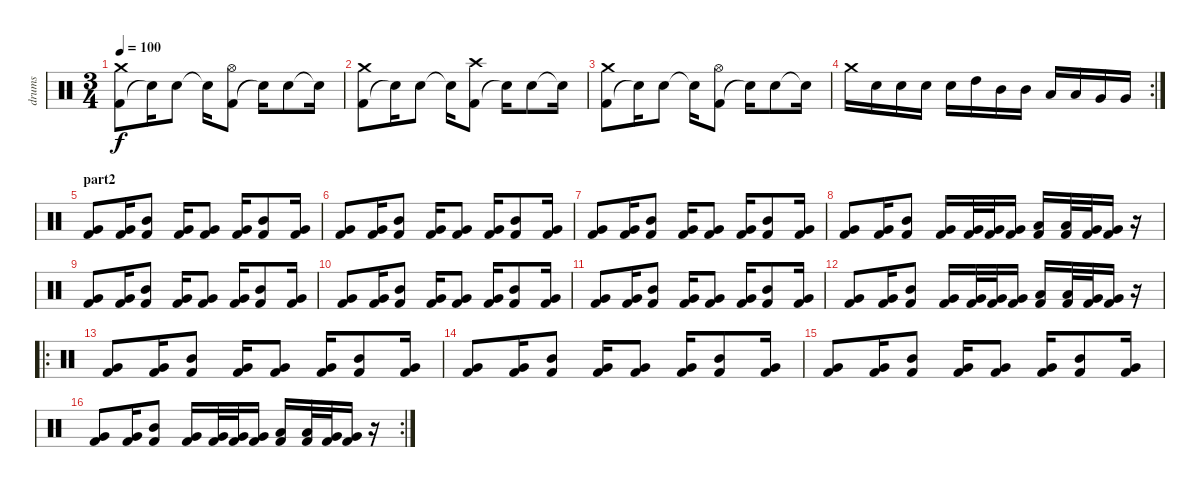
\track ("drums" "drums") {instrument percussion}
\staff {score}
\articulation defaults
\ts (3 4)
\tempo 100
\clef neutral
\ks c
("Kick (hit) 2" "Crash medium (hit)").8{dy f} "Snare (hit)"{t}.16 "Electric Snare (hit)".8 "Snare (hit)"{t}.16 ("Kick (hit) 2" "Hi-Hat (open)").8 "Snare (hit)"{t}.16 "Electric Snare (hit)".8 "Snare (hit)"{t}.16 |
("Kick (hit) 2" "Crash medium (hit)").8 "Snare (hit)"{t}.16 "Electric Snare (hit)".8 "Snare (hit)"{t}.16 ("Kick (hit) 2" "Crash high (hit)").8 "Snare (hit)"{t}.16 "Electric Snare (hit)".8 "Snare (hit)"{t}.16 |
("Kick (hit) 2" "Crash medium (hit)").8 "Snare (hit)"{t}.16 "Electric Snare (hit)".8 "Snare (hit)"{t}.16 ("Kick (hit) 2" "Hi-Hat (open)").8 "Snare (hit)"{t}.16 "Electric Snare (hit)".8 "Snare (hit)"{t}.16 |
\rc 2 "Crash medium (hit)".16 "Electric Snare (hit)".16 "Electric Snare (hit)".16 "Electric Snare (hit)".16 "Electric Snare (hit)".16 "High Tom (hit)".16 "Mid Tom (hit)".16 "Mid Tom (hit)".16 "Low Tom (hit)".16 "Low Tom (hit)".16 "Very Low Tom (hit)".16 "Very Low Tom (hit)".16
|
\section ("" "part2")
("Kick (hit) 2" "Very Low Tom (hit)").8 ("Kick (hit) 2" "Very Low Tom (hit)").16 ("Kick (hit) 2" "Mid Tom (hit)").8 ("Kick (hit) 2" "Very Low Tom (hit)").16 ("Kick (hit) 2" "Very Low Tom (hit)").8 ("Kick (hit) 2" "Very Low Tom (hit)").16 ("Kick (hit) 2" "Mid Tom (hit)").8 ("Kick (hit) 2" "Very Low Tom (hit)").16 |
("Kick (hit) 2" "Very Low Tom (hit)").8 ("Kick (hit) 2" "Very Low Tom (hit)").16 ("Kick (hit) 2" "Mid Tom (hit)").8 ("Kick (hit) 2" "Very Low Tom (hit)").16 ("Kick (hit) 2" "Very Low Tom (hit)").8 ("Kick (hit) 2" "Very Low Tom (hit)").16 ("Kick (hit) 2" "Mid Tom (hit)").8 ("Kick (hit) 2" "Very Low Tom (hit)").16 |
("Kick (hit) 2" "Very Low Tom (hit)").8 ("Kick (hit) 2" "Very Low Tom (hit)").16 ("Kick (hit) 2" "Mid Tom (hit)").8 ("Kick (hit) 2" "Very Low Tom (hit)").16 ("Kick (hit) 2" "Very Low Tom (hit)").8 ("Kick (hit) 2" "Very Low Tom (hit)").16 ("Kick (hit) 2" "Mid Tom (hit)").8 ("Kick (hit) 2" "Very Low Tom (hit)").16 |
("Kick (hit) 2" "Very Low Tom (hit)").8 ("Kick (hit) 2" "Very Low Tom (hit)").16 ("Kick (hit) 2" "Mid Tom (hit)").8 ("Kick (hit) 2" "Very Low Tom (hit)").16 ("Kick (hit) 2" "Very Low Tom (hit)").32 ("Kick (hit) 2" "Very Low Tom (hit)").32 ("Kick (hit) 2" "Very Low Tom (hit)").16 ("Kick (hit) 2" "Low Tom (hit)").16 ("Kick (hit) 2" "Low Tom (hit)").32 ("Kick (hit) 2" "Very Low Tom (hit)").32 ("Kick (hit) 2" "Very Low Tom (hit)").16 r.16 |
("Kick (hit) 2" "Very Low Tom (hit)").8 ("Kick (hit) 2" "Very Low Tom (hit)").16 ("Kick (hit) 2" "Mid Tom (hit)").8 ("Kick (hit) 2" "Very Low Tom (hit)").16 ("Kick (hit) 2" "Very Low Tom (hit)").8 ("Kick (hit) 2" "Very Low Tom (hit)").16 ("Kick (hit) 2" "Mid Tom (hit)").8 ("Kick (hit) 2" "Very Low Tom (hit)").16 |
("Kick (hit) 2" "Very Low Tom (hit)").8 ("Kick (hit) 2" "Very Low Tom (hit)").16 ("Kick (hit) 2" "Mid Tom (hit)").8 ("Kick (hit) 2" "Very Low Tom (hit)").16 ("Kick (hit) 2" "Very Low Tom (hit)").8 ("Kick (hit) 2" "Very Low Tom (hit)").16 ("Kick (hit) 2" "Mid Tom (hit)").8 ("Kick (hit) 2" "Very Low Tom (hit)").16 |
("Kick (hit) 2" "Very Low Tom (hit)").8 ("Kick (hit) 2" "Very Low Tom (hit)").16 ("Kick (hit) 2" "Mid Tom (hit)").8 ("Kick (hit) 2" "Very Low Tom (hit)").16 ("Kick (hit) 2" "Very Low Tom (hit)").8 ("Kick (hit) 2" "Very Low Tom (hit)").16 ("Kick (hit) 2" "Mid Tom (hit)").8 ("Kick (hit) 2" "Very Low Tom (hit)").16 |
("Kick (hit) 2" "Very Low Tom (hit)").8 ("Kick (hit) 2" "Very Low Tom (hit)").16 ("Kick (hit) 2" "Mid Tom (hit)").8 ("Kick (hit) 2" "Very Low Tom (hit)").16 ("Kick (hit) 2" "Very Low Tom (hit)").32 ("Kick (hit) 2" "Very Low Tom (hit)").32 ("Kick (hit) 2" "Very Low Tom (hit)").16 ("Kick (hit) 2" "Low Tom (hit)").16 ("Kick (hit) 2" "Low Tom (hit)").32 ("Kick (hit) 2" "Very Low Tom (hit)").32 ("Kick (hit) 2" "Very Low Tom (hit)").16 r.16 |
\ro
("Kick (hit) 2" "Very Low Tom (hit)").8 ("Kick (hit) 2" "Very Low Tom (hit)").16 ("Kick (hit) 2" "Mid Tom (hit)").8 ("Kick (hit) 2" "Very Low Tom (hit)").16 ("Kick (hit) 2" "Very Low Tom (hit)").8 ("Kick (hit) 2" "Very Low Tom (hit)").16 ("Kick (hit) 2" "Mid Tom (hit)").8 ("Kick (hit) 2" "Very Low Tom (hit)").16 |
("Kick (hit) 2" "Very Low Tom (hit)").8 ("Kick (hit) 2" "Very Low Tom (hit)").16 ("Kick (hit) 2" "Mid Tom (hit)").8 ("Kick (hit) 2" "Very Low Tom (hit)").16 ("Kick (hit) 2" "Very Low Tom (hit)").8 ("Kick (hit) 2" "Very Low Tom (hit)").16 ("Kick (hit) 2" "Mid Tom (hit)").8 ("Kick (hit) 2" "Very Low Tom (hit)").16 |
("Kick (hit) 2" "Very Low Tom (hit)").8 ("Kick (hit) 2" "Very Low Tom (hit)").16 ("Kick (hit) 2" "Mid Tom (hit)").8 ("Kick (hit) 2" "Very Low Tom (hit)").16 ("Kick (hit) 2" "Very Low Tom (hit)").8 ("Kick (hit) 2" "Very Low Tom (hit)").16 ("Kick (hit) 2" "Mid Tom (hit)").8 ("Kick (hit) 2" "Very Low Tom (hit)").16 |
\rc 2
("Kick (hit) 2" "Very Low Tom (hit)").8 ("Kick (hit) 2" "Very Low Tom (hit)").16 ("Kick (hit) 2" "Mid Tom (hit)").8 ("Kick (hit) 2" "Very Low Tom (hit)").16 ("Kick (hit) 2" "Very Low Tom (hit)").32 ("Kick (hit) 2" "Very Low Tom (hit)").32 ("Kick (hit) 2" "Very Low Tom (hit)").16 ("Kick (hit) 2" "Low Tom (hit)").16 ("Kick (hit) 2" "Low Tom (hit)").32 ("Kick (hit) 2" "Very Low Tom (hit)").32 ("Kick (hit) 2" "Very Low Tom (hit)").16 r.16
